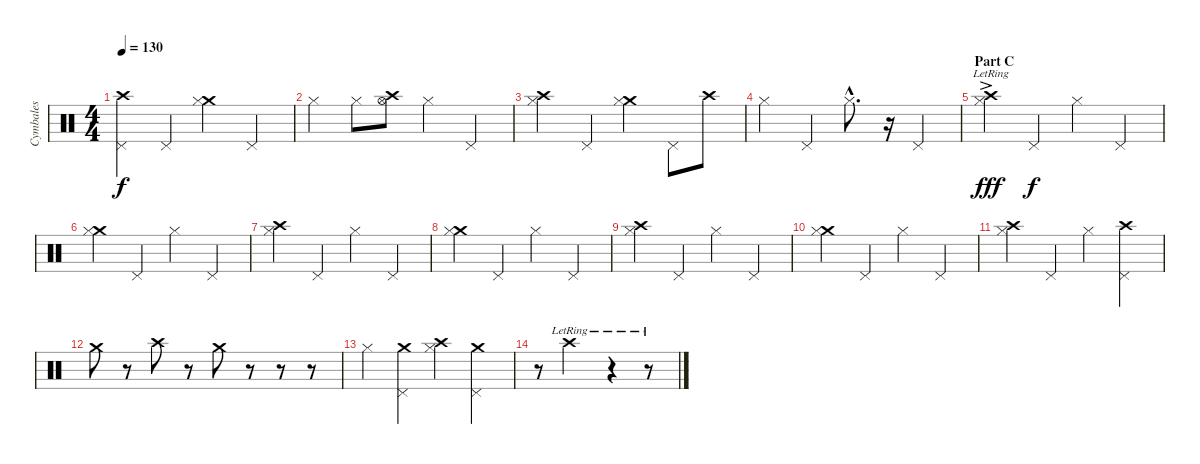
\track ("Cymbales" "Cymbales") {instrument percussion}
\staff {score}
\articulation defaults
\ts (4 4)
\tempo 130
\clef neutral
\ks c
("Crash high (hit)" "Pedal Hi-Hat (hit)").4{dy f} "Pedal Hi-Hat (hit)".4 ("Crash medium (hit)" "Hi-Hat (closed)").4 "Pedal Hi-Hat (hit)".4 |
"Hi-Hat (closed)".4 "Hi-Hat (closed)".8 ("Crash high (hit)" "Hi-Hat (open)").8 "Hi-Hat (closed)".4 "Pedal Hi-Hat (hit)".4 |
("Crash high (hit)" "Hi-Hat (closed)").4 "Pedal Hi-Hat (hit)".4 ("Crash medium (hit)" "Hi-Hat (closed)").4 "Pedal Hi-Hat (hit)".8 "Crash high (hit)".8 |
"Hi-Hat (closed)".4 "Pedal Hi-Hat (hit)".4 "Hi-Hat (closed)"{hac}.8{d} r.16 "Pedal Hi-Hat (hit)".4 |
\section ("" "Part C")
("Crash high (hit)"{ac lr} "Hi-Hat (closed)").4{dy fff} "Pedal Hi-Hat (hit)".4{dy f} "Hi-Hat (closed)".4 "Pedal Hi-Hat (hit)".4 |
("Crash medium (hit)" "Hi-Hat (closed)").4 "Pedal Hi-Hat (hit)".4 "Hi-Hat (closed)".4 "Pedal Hi-Hat (hit)".4 |
("Crash high (hit)" "Hi-Hat (closed)").4 "Pedal Hi-Hat (hit)".4 "Hi-Hat (closed)".4 "Pedal Hi-Hat (hit)".4 |
("Crash medium (hit)" "Hi-Hat (closed)").4 "Pedal Hi-Hat (hit)".4 "Hi-Hat (closed)".4 "Pedal Hi-Hat (hit)".4 |
("Crash high (hit)" "Hi-Hat (closed)").4 "Pedal Hi-Hat (hit)".4 "Hi-Hat (closed)".4 "Pedal Hi-Hat (hit)".4 |
("Crash medium (hit)" "Hi-Hat (closed)").4 "Pedal Hi-Hat (hit)".4 "Hi-Hat (closed)".4 "Pedal Hi-Hat (hit)".4 |
("Crash high (hit)" "Hi-Hat (closed)").4 "Pedal Hi-Hat (hit)".4 "Hi-Hat (closed)".4 ("Crash high (hit)" "Pedal Hi-Hat (hit)").4 |
"Crash medium (hit)".8 r.8 "Crash high (hit)".8 r.8 "Crash medium (hit)".8 r.8 r.8 r.8 |
"Hi-Hat (closed)".4 ("Crash medium (hit)" "Pedal Hi-Hat (hit)").4 ("Crash high (hit)" "Hi-Hat (closed)").4 ("Crash medium (hit)" "Pedal Hi-Hat (hit)").4 |
r.8 "Crash high (hit)"{lr}.2 r.4 r.8
